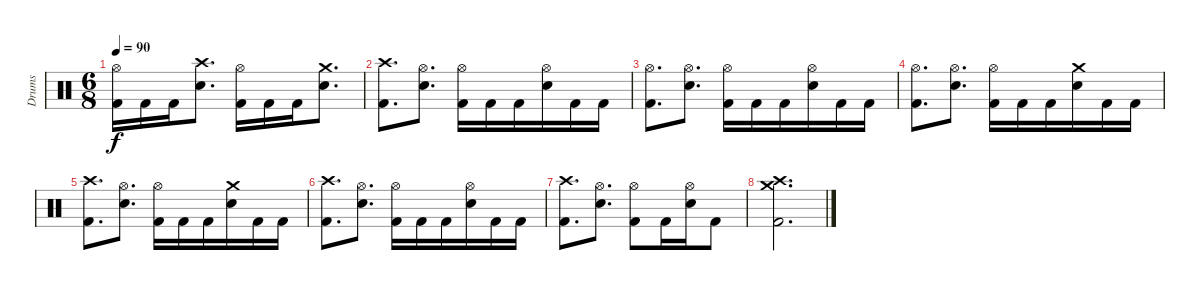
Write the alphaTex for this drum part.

\track ("Drums" "Drums") {instrument percussion}
\staff {score}
\articulation defaults
\ts (6 8)
\tempo 90
\clef neutral
\ks c
("Kick (hit) 2" "Hi-Hat (open)").16{dy f} "Kick (hit) 2".16 "Kick (hit) 2".16 ("Electric Snare (hit)" "Crash high (hit)").8{d} ("Kick (hit) 2" "Hi-Hat (open)").16 "Kick (hit) 2".16 "Kick (hit) 2".16 ("Electric Snare (hit)" "Crash medium (hit)").8{d} |
("Kick (hit) 2" "Crash high (hit)").8{d} ("Electric Snare (hit)" "Hi-Hat (open)").8{d} ("Kick (hit) 2" "Hi-Hat (open)").16 "Kick (hit) 2".16 "Kick (hit) 2".16 ("Electric Snare (hit)" "Hi-Hat (open)").16 "Kick (hit) 2".16 "Kick (hit) 2".16 |
("Kick (hit) 2" "Hi-Hat (open)").8{d} ("Electric Snare (hit)" "Hi-Hat (open)").8{d} ("Kick (hit) 2" "Hi-Hat (open)").16 "Kick (hit) 2".16 "Kick (hit) 2".16 ("Electric Snare (hit)" "Hi-Hat (open)").16 "Kick (hit) 2".16 "Kick (hit) 2".16 |
("Kick (hit) 2" "Hi-Hat (open)").8{d} ("Electric Snare (hit)" "Hi-Hat (open)").8{d} ("Kick (hit) 2" "Hi-Hat (open)").16 "Kick (hit) 2".16 "Kick (hit) 2".16 ("Electric Snare (hit)" "Crash medium (hit)").16 "Kick (hit) 2".16 "Kick (hit) 2".16 |
("Kick (hit) 2" "Crash high (hit)").8{d} ("Electric Snare (hit)" "Hi-Hat (open)").8{d} ("Kick (hit) 2" "Hi-Hat (open)").16 "Kick (hit) 2".16 "Kick (hit) 2".16 ("Electric Snare (hit)" "Crash medium (hit)").16 "Kick (hit) 2".16 "Kick (hit) 2".16 |
("Kick (hit) 2" "Crash high (hit)").8{d} ("Electric Snare (hit)" "Hi-Hat (open)").8{d} ("Kick (hit) 2" "Hi-Hat (open)").16 "Kick (hit) 2".16 "Kick (hit) 2".16 ("Electric Snare (hit)" "Hi-Hat (open)").16 "Kick (hit) 2".16 "Kick (hit) 2".16 |
("Kick (hit) 2" "Crash high (hit)").8{d} ("Electric Snare (hit)" "Hi-Hat (open)").8{d} ("Kick (hit) 2" "Hi-Hat (open)").8 "Kick (hit) 2".16 ("Electric Snare (hit)" "Hi-Hat (open)").16 "Kick (hit) 2".8 |
("Kick (hit) 2" "Crash medium (hit)" "Crash high (hit)").2{d}
